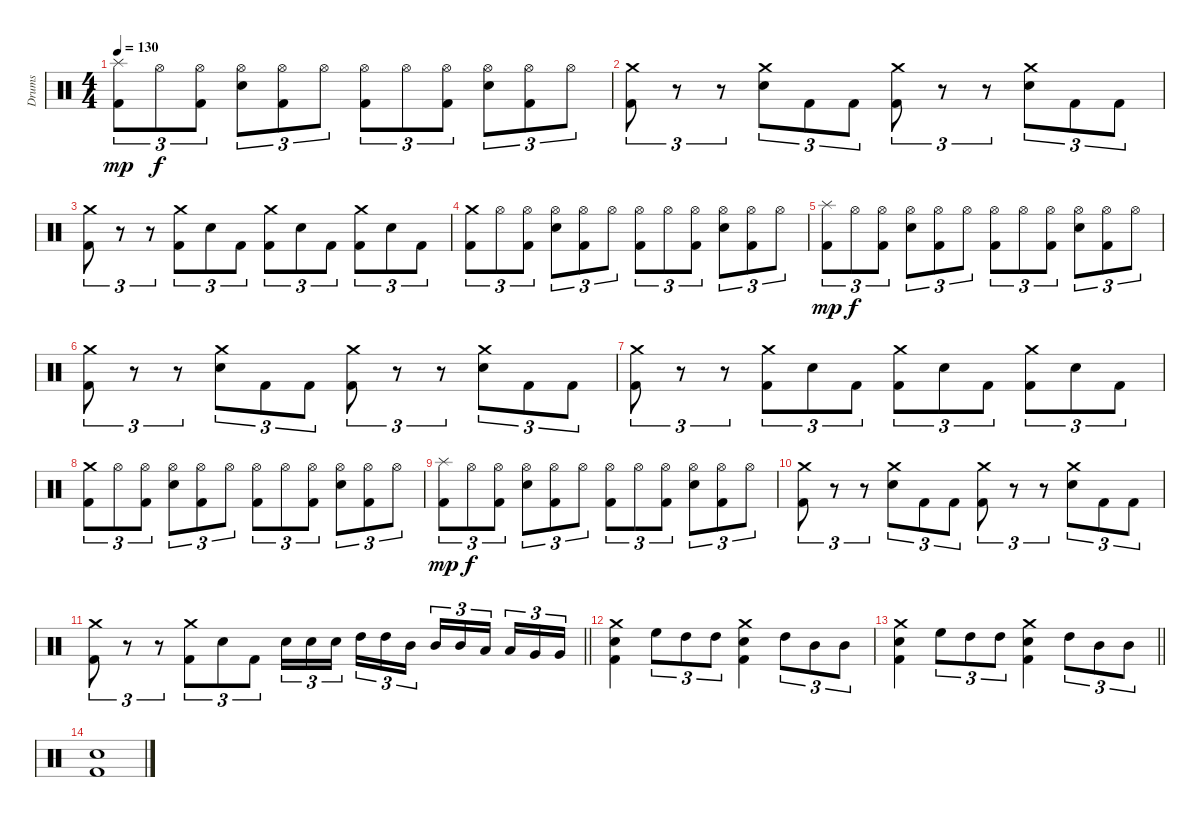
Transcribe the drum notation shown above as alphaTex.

\track ("Drums" "Drums") {instrument percussion}
\staff {score}
\articulation defaults
\ts (4 4)
\tempo 130
\clef neutral
\ks c
("Kick (hit) 2" "Splash (hit)").8{tu (3 2) dy mp} "Hi-Hat (open)".8{tu (3 2) dy f} ("Kick (hit) 2" "Hi-Hat (open)").8{tu (3 2)} ("Electric Snare (hit)" "Hi-Hat (open)").8{tu (3 2)} ("Kick (hit) 2" "Hi-Hat (open)").8{tu (3 2)} "Hi-Hat (open)".8{tu (3 2)} ("Kick (hit) 2" "Hi-Hat (open)").8{tu (3 2)} "Hi-Hat (open)".8{tu (3 2)} ("Kick (hit) 2" "Hi-Hat (open)").8{tu (3 2)} ("Electric Snare (hit)" "Hi-Hat (open)").8{tu (3 2)} ("Kick (hit) 2" "Hi-Hat (open)").8{tu (3 2)} "Hi-Hat (open)".8{tu (3 2)} |
("Kick (hit) 2" "Crash medium (hit)").8{tu (3 2)} r.8{tu (3 2)} r.8{tu (3 2)} ("Electric Snare (hit)" "Crash medium (hit)").8{tu (3 2)} "Kick (hit) 2".8{tu (3 2)} "Kick (hit) 2".8{tu (3 2)} ("Kick (hit) 2" "Crash medium (hit)").8{tu (3 2)} r.8{tu (3 2)} r.8{tu (3 2)} ("Electric Snare (hit)" "Crash medium (hit)").8{tu (3 2)} "Kick (hit) 2".8{tu (3 2)} "Kick (hit) 2".8{tu (3 2)} |
("Kick (hit) 2" "Crash medium (hit)").8{tu (3 2)} r.8{tu (3 2)} r.8{tu (3 2)} ("Kick (hit) 2" "Crash medium (hit)").8{tu (3 2)} "Electric Snare (hit)".8{tu (3 2)} "Kick (hit) 2".8{tu (3 2)} ("Kick (hit) 2" "Crash medium (hit)").8{tu (3 2)} "Electric Snare (hit)".8{tu (3 2)} "Kick (hit) 2".8{tu (3 2)} ("Kick (hit) 2" "Crash medium (hit)").8{tu (3 2)} "Electric Snare (hit)".8{tu (3 2)} "Kick (hit) 2".8{tu (3 2)} |
("Kick (hit) 2" "Crash medium (hit)").8{tu (3 2)} "Hi-Hat (open)".8{tu (3 2)} ("Kick (hit) 2" "Hi-Hat (open)").8{tu (3 2)} ("Electric Snare (hit)" "Hi-Hat (open)").8{tu (3 2)} ("Kick (hit) 2" "Hi-Hat (open)").8{tu (3 2)} "Hi-Hat (open)".8{tu (3 2)} ("Kick (hit) 2" "Hi-Hat (open)").8{tu (3 2)} "Hi-Hat (open)".8{tu (3 2)} ("Kick (hit) 2" "Hi-Hat (open)").8{tu (3 2)} ("Electric Snare (hit)" "Hi-Hat (open)").8{tu (3 2)} ("Kick (hit) 2" "Hi-Hat (open)").8{tu (3 2)} "Hi-Hat (open)".8{tu (3 2)} |
("Kick (hit) 2" "Splash (hit)").8{tu (3 2) dy mp} "Hi-Hat (open)".8{tu (3 2) dy f} ("Kick (hit) 2" "Hi-Hat (open)").8{tu (3 2)} ("Electric Snare (hit)" "Hi-Hat (open)").8{tu (3 2)} ("Kick (hit) 2" "Hi-Hat (open)").8{tu (3 2)} "Hi-Hat (open)".8{tu (3 2)} ("Kick (hit) 2" "Hi-Hat (open)").8{tu (3 2)} "Hi-Hat (open)".8{tu (3 2)} ("Kick (hit) 2" "Hi-Hat (open)").8{tu (3 2)} ("Electric Snare (hit)" "Hi-Hat (open)").8{tu (3 2)} ("Kick (hit) 2" "Hi-Hat (open)").8{tu (3 2)} "Hi-Hat (open)".8{tu (3 2)} |
("Kick (hit) 2" "Crash medium (hit)").8{tu (3 2)} r.8{tu (3 2)} r.8{tu (3 2)} ("Electric Snare (hit)" "Crash medium (hit)").8{tu (3 2)} "Kick (hit) 2".8{tu (3 2)} "Kick (hit) 2".8{tu (3 2)} ("Kick (hit) 2" "Crash medium (hit)").8{tu (3 2)} r.8{tu (3 2)} r.8{tu (3 2)} ("Electric Snare (hit)" "Crash medium (hit)").8{tu (3 2)} "Kick (hit) 2".8{tu (3 2)} "Kick (hit) 2".8{tu (3 2)} |
("Kick (hit) 2" "Crash medium (hit)").8{tu (3 2)} r.8{tu (3 2)} r.8{tu (3 2)} ("Kick (hit) 2" "Crash medium (hit)").8{tu (3 2)} "Electric Snare (hit)".8{tu (3 2)} "Kick (hit) 2".8{tu (3 2)} ("Kick (hit) 2" "Crash medium (hit)").8{tu (3 2)} "Electric Snare (hit)".8{tu (3 2)} "Kick (hit) 2".8{tu (3 2)} ("Kick (hit) 2" "Crash medium (hit)").8{tu (3 2)} "Electric Snare (hit)".8{tu (3 2)} "Kick (hit) 2".8{tu (3 2)} |
("Kick (hit) 2" "Crash medium (hit)").8{tu (3 2)} "Hi-Hat (open)".8{tu (3 2)} ("Kick (hit) 2" "Hi-Hat (open)").8{tu (3 2)} ("Electric Snare (hit)" "Hi-Hat (open)").8{tu (3 2)} ("Kick (hit) 2" "Hi-Hat (open)").8{tu (3 2)} "Hi-Hat (open)".8{tu (3 2)} ("Kick (hit) 2" "Hi-Hat (open)").8{tu (3 2)} "Hi-Hat (open)".8{tu (3 2)} ("Kick (hit) 2" "Hi-Hat (open)").8{tu (3 2)} ("Electric Snare (hit)" "Hi-Hat (open)").8{tu (3 2)} ("Kick (hit) 2" "Hi-Hat (open)").8{tu (3 2)} "Hi-Hat (open)".8{tu (3 2)} |
("Kick (hit) 2" "Splash (hit)").8{tu (3 2) dy mp} "Hi-Hat (open)".8{tu (3 2) dy f} ("Kick (hit) 2" "Hi-Hat (open)").8{tu (3 2)} ("Electric Snare (hit)" "Hi-Hat (open)").8{tu (3 2)} ("Kick (hit) 2" "Hi-Hat (open)").8{tu (3 2)} "Hi-Hat (open)".8{tu (3 2)} ("Kick (hit) 2" "Hi-Hat (open)").8{tu (3 2)} "Hi-Hat (open)".8{tu (3 2)} ("Kick (hit) 2" "Hi-Hat (open)").8{tu (3 2)} ("Electric Snare (hit)" "Hi-Hat (open)").8{tu (3 2)} ("Kick (hit) 2" "Hi-Hat (open)").8{tu (3 2)} "Hi-Hat (open)".8{tu (3 2)} |
("Kick (hit) 2" "Crash medium (hit)").8{tu (3 2)} r.8{tu (3 2)} r.8{tu (3 2)} ("Electric Snare (hit)" "Crash medium (hit)").8{tu (3 2)} "Kick (hit) 2".8{tu (3 2)} "Kick (hit) 2".8{tu (3 2)} ("Kick (hit) 2" "Crash medium (hit)").8{tu (3 2)} r.8{tu (3 2)} r.8{tu (3 2)} ("Electric Snare (hit)" "Crash medium (hit)").8{tu (3 2)} "Kick (hit) 2".8{tu (3 2)} "Kick (hit) 2".8{tu (3 2)} |
\barLineRight lightlight
("Kick (hit) 2" "Crash medium (hit)").8{tu (3 2)} r.8{tu (3 2)} r.8{tu (3 2)} ("Kick (hit) 2" "Crash medium (hit)").8{tu (3 2)} "Electric Snare (hit)".8{tu (3 2)} "Kick (hit) 2".8{tu (3 2)} "Electric Snare (hit)".16{tu (3 2)} "Electric Snare (hit)".16{tu (3 2)} "Electric Snare (hit)".16{tu (3 2) beam splitsecondary} "High Tom (hit)".16{tu (3 2)} "High Tom (hit)".16{tu (3 2)} "Mid Tom (hit)".16{tu (3 2)} "Mid Tom (hit)".16{tu (3 2)} "Mid Tom (hit)".16{tu (3 2)} "Low Tom (hit)".16{tu (3 2) beam splitsecondary} "Low Tom (hit)".16{tu (3 2)} "Very Low Tom (hit)".16{tu (3 2)} "Very Low Tom (hit)".16{tu (3 2)} |
("Crash medium (hit)" "Electric Snare (hit)" "Kick (hit) 2").4 "High Floor Tom (hit)".8{tu (3 2)} "High Tom (hit)".8{tu (3 2)} "High Tom (hit)".8{tu (3 2)} ("Crash medium (hit)" "Electric Snare (hit)" "Kick (hit) 2").4 "High Tom (hit)".8{tu (3 2)} "Mid Tom (hit)".8{tu (3 2)} "Mid Tom (hit)".8{tu (3 2)} |
\barLineRight lightlight
("Crash medium (hit)" "Electric Snare (hit)" "Kick (hit) 2").4 "High Floor Tom (hit)".8{tu (3 2)} "High Tom (hit)".8{tu (3 2)} "High Tom (hit)".8{tu (3 2)} ("Crash medium (hit)" "Electric Snare (hit)" "Kick (hit) 2").4 "High Tom (hit)".8{tu (3 2)} "Mid Tom (hit)".8{tu (3 2)} "Mid Tom (hit)".8{tu (3 2)} |
("Kick (hit) 2" "Electric Snare (hit)").1
